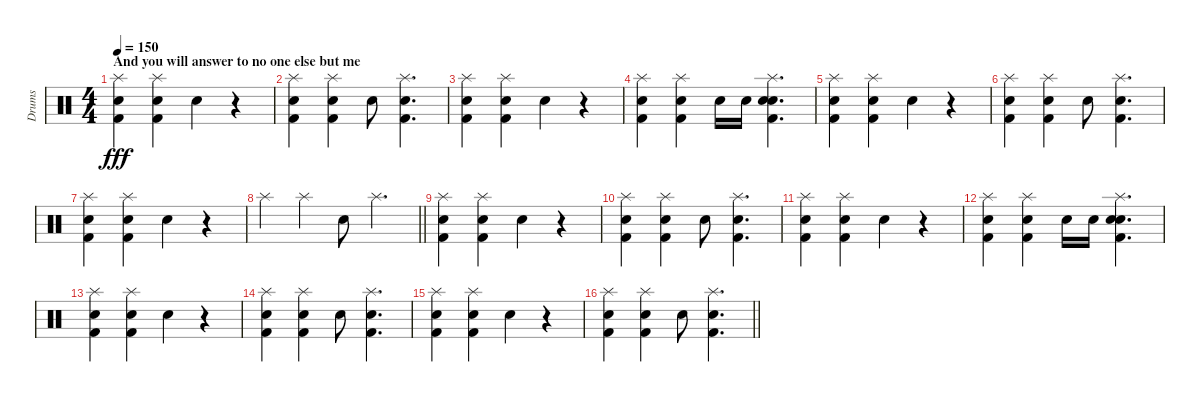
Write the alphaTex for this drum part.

\track ("Drums" "Drums") {instrument percussion}
\staff {score}
\articulation defaults
\ts (4 4)
\section ("" "And you will answer to no one else but me")
\tempo 150
\clef neutral
\ks c
("Splash (hit)" "Electric Snare (hit)" "Kick (hit) 2").4{dy fff} ("Splash (hit)" "Electric Snare (hit)" "Kick (hit) 2").4 "Hand Clap (hit)".4 r.4 |
("Splash (hit)" "Electric Snare (hit)" "Kick (hit) 2").4 ("Splash (hit)" "Electric Snare (hit)" "Kick (hit) 2").4 "Hand Clap (hit)".8 ("Splash (hit)" "Electric Snare (hit)" "Kick (hit) 2").4{d} |
("Splash (hit)" "Electric Snare (hit)" "Kick (hit) 2").4 ("Splash (hit)" "Electric Snare (hit)" "Kick (hit) 2").4 "Hand Clap (hit)".4 r.4 |
("Splash (hit)" "Electric Snare (hit)" "Kick (hit) 2").4 ("Splash (hit)" "Electric Snare (hit)" "Kick (hit) 2").4 "Hand Clap (hit)".16 "Hand Clap (hit)".16 ("Splash (hit)" "Electric Snare (hit)" "Hand Clap (hit)" "Kick (hit) 2").4{d} |
("Splash (hit)" "Electric Snare (hit)" "Kick (hit) 2").4 ("Splash (hit)" "Electric Snare (hit)" "Kick (hit) 2").4 "Hand Clap (hit)".4 r.4 |
("Splash (hit)" "Electric Snare (hit)" "Kick (hit) 2").4 ("Splash (hit)" "Electric Snare (hit)" "Kick (hit) 2").4 "Hand Clap (hit)".8 ("Splash (hit)" "Electric Snare (hit)" "Kick (hit) 2").4{d} |
("Splash (hit)" "Electric Snare (hit)" "Kick (hit) 2").4 ("Splash (hit)" "Electric Snare (hit)" "Kick (hit) 2").4 "Hand Clap (hit)".4 r.4 |
\barLineRight lightlight "Splash (hit)".4 "Splash (hit)".4 "Hand Clap (hit)".8 "Splash (hit)".4{d}
|
("Splash (hit)" "Electric Snare (hit)" "Kick (hit) 2").4 ("Splash (hit)" "Electric Snare (hit)" "Kick (hit) 2").4 "Hand Clap (hit)".4 r.4 |
("Splash (hit)" "Electric Snare (hit)" "Kick (hit) 2").4 ("Splash (hit)" "Electric Snare (hit)" "Kick (hit) 2").4 "Hand Clap (hit)".8 ("Splash (hit)" "Electric Snare (hit)" "Kick (hit) 2").4{d} |
("Splash (hit)" "Electric Snare (hit)" "Kick (hit) 2").4 ("Splash (hit)" "Electric Snare (hit)" "Kick (hit) 2").4 "Hand Clap (hit)".4 r.4 |
("Splash (hit)" "Electric Snare (hit)" "Kick (hit) 2").4 ("Splash (hit)" "Electric Snare (hit)" "Kick (hit) 2").4 "Hand Clap (hit)".16 "Hand Clap (hit)".16 ("Splash (hit)" "Electric Snare (hit)" "Hand Clap (hit)" "Kick (hit) 2").4{d} |
("Splash (hit)" "Electric Snare (hit)" "Kick (hit) 2").4 ("Splash (hit)" "Electric Snare (hit)" "Kick (hit) 2").4 "Hand Clap (hit)".4 r.4 |
("Splash (hit)" "Electric Snare (hit)" "Kick (hit) 2").4 ("Splash (hit)" "Electric Snare (hit)" "Kick (hit) 2").4 "Hand Clap (hit)".8 ("Splash (hit)" "Electric Snare (hit)" "Kick (hit) 2").4{d} |
("Splash (hit)" "Electric Snare (hit)" "Kick (hit) 2").4 ("Splash (hit)" "Electric Snare (hit)" "Kick (hit) 2").4 "Hand Clap (hit)".4 r.4 |
\barLineRight lightlight
("Splash (hit)" "Electric Snare (hit)" "Kick (hit) 2").4 ("Splash (hit)" "Electric Snare (hit)" "Kick (hit) 2").4 "Hand Clap (hit)".8 ("Splash (hit)" "Electric Snare (hit)" "Kick (hit) 2").4{d}
